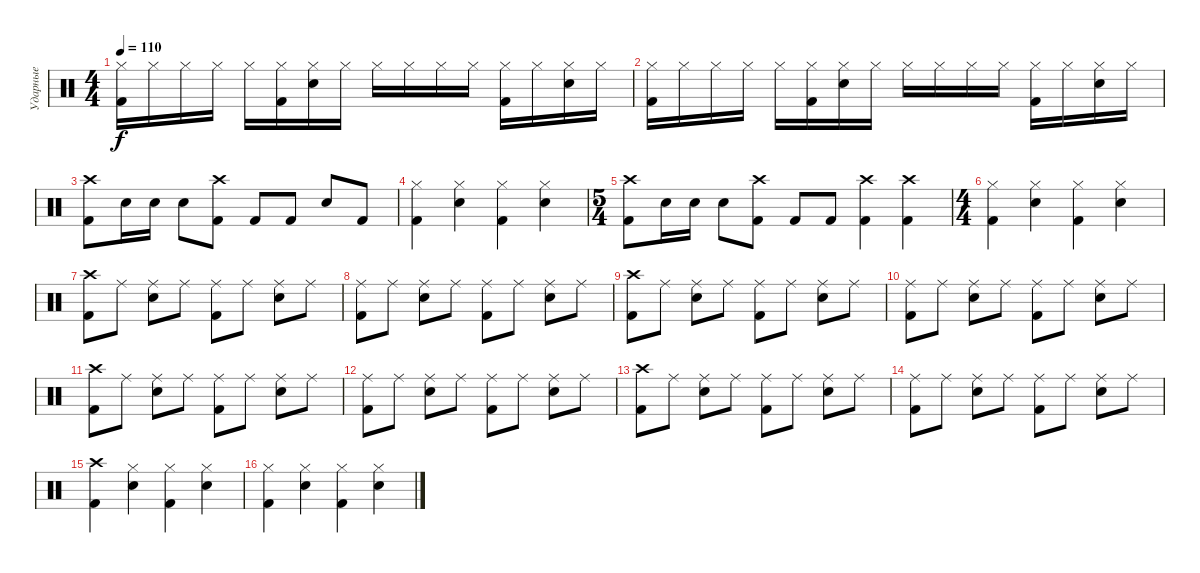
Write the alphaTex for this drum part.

\track ("Ударные" "Ударные") {instrument percussion}
\staff {score}
\articulation defaults
\ts (4 4)
\tempo 110
\clef neutral
\ks c
("Hi-Hat (closed)" "Kick (hit) 2").16{dy f} "Hi-Hat (closed)".16 "Hi-Hat (closed)".16 "Hi-Hat (closed)".16 "Hi-Hat (closed)".16 ("Kick (hit) 2" "Hi-Hat (closed)").16 ("Hi-Hat (closed)" "Electric Snare (hit)").16 "Hi-Hat (closed)".16 "Hi-Hat (closed)".16 "Hi-Hat (closed)".16 "Hi-Hat (closed)".16 "Hi-Hat (closed)".16 ("Kick (hit) 2" "Hi-Hat (closed)").16 "Hi-Hat (closed)".16 ("Hi-Hat (closed)" "Electric Snare (hit)").16 "Hi-Hat (closed)".16 |
("Hi-Hat (closed)" "Kick (hit) 2").16 "Hi-Hat (closed)".16 "Hi-Hat (closed)".16 "Hi-Hat (closed)".16 "Hi-Hat (closed)".16 ("Kick (hit) 2" "Hi-Hat (closed)").16 ("Hi-Hat (closed)" "Electric Snare (hit)").16 "Hi-Hat (closed)".16 "Hi-Hat (closed)".16 "Hi-Hat (closed)".16 "Hi-Hat (closed)".16 "Hi-Hat (closed)".16 ("Kick (hit) 2" "Hi-Hat (closed)").16 "Hi-Hat (closed)".16 ("Hi-Hat (closed)" "Electric Snare (hit)").16 "Hi-Hat (closed)".16 |
("Crash high (hit)" "Kick (hit) 2").8 "Electric Snare (hit)".16 "Electric Snare (hit)".16 "Electric Snare (hit)".8 ("Crash high (hit)" "Kick (hit) 2").8 "Kick (hit) 2".8 "Kick (hit) 2".8 "Electric Snare (hit)".8 "Kick (hit) 2".8 |
("Kick (hit) 2" "Hi-Hat (closed)").4 ("Electric Snare (hit)" "Hi-Hat (closed)").4 ("Kick (hit) 2" "Hi-Hat (closed)").4 ("Electric Snare (hit)" "Hi-Hat (closed)").4 |
\ts (5 4)
("Crash high (hit)" "Kick (hit) 2").8 "Electric Snare (hit)".16 "Electric Snare (hit)".16 "Electric Snare (hit)".8 ("Crash high (hit)" "Kick (hit) 2").8 "Kick (hit) 2".8 "Kick (hit) 2".8 ("Kick (hit) 2" "Crash high (hit)").4 ("Crash high (hit)" "Kick (hit) 2").4 |
\ts (4 4)
("Kick (hit) 2" "Hi-Hat (closed)").4 ("Electric Snare (hit)" "Hi-Hat (closed)").4 ("Kick (hit) 2" "Hi-Hat (closed)").4 ("Electric Snare (hit)" "Hi-Hat (closed)").4 |
("Crash high (hit)" "Kick (hit) 2").8 "Ride (middle)".8 ("Electric Snare (hit)" "Ride (middle)").8 "Ride (middle)".8 ("Kick (hit) 2" "Ride (middle)").8 "Ride (middle)".8 ("Electric Snare (hit)" "Ride (middle)").8 "Ride (middle)".8 |
("Kick (hit) 2" "Ride (middle)").8 "Ride (middle)".8 ("Electric Snare (hit)" "Ride (middle)").8 "Ride (middle)".8 ("Kick (hit) 2" "Ride (middle)").8 "Ride (middle)".8 ("Electric Snare (hit)" "Ride (middle)").8 "Ride (middle)".8 |
("Crash high (hit)" "Kick (hit) 2").8 "Ride (middle)".8 ("Electric Snare (hit)" "Ride (middle)").8 "Ride (middle)".8 ("Kick (hit) 2" "Ride (middle)").8 "Ride (middle)".8 ("Electric Snare (hit)" "Ride (middle)").8 "Ride (middle)".8 |
("Kick (hit) 2" "Ride (middle)").8 "Ride (middle)".8 ("Electric Snare (hit)" "Ride (middle)").8 "Ride (middle)".8 ("Kick (hit) 2" "Ride (middle)").8 "Ride (middle)".8 ("Electric Snare (hit)" "Ride (middle)").8 "Ride (middle)".8 |
("Crash high (hit)" "Kick (hit) 2").8 "Ride (middle)".8 ("Electric Snare (hit)" "Ride (middle)").8 "Ride (middle)".8 ("Kick (hit) 2" "Ride (middle)").8 "Ride (middle)".8 ("Electric Snare (hit)" "Ride (middle)").8 "Ride (middle)".8 |
("Kick (hit) 2" "Ride (middle)").8 "Ride (middle)".8 ("Electric Snare (hit)" "Ride (middle)").8 "Ride (middle)".8 ("Kick (hit) 2" "Ride (middle)").8 "Ride (middle)".8 ("Electric Snare (hit)" "Ride (middle)").8 "Ride (middle)".8 |
("Crash high (hit)" "Kick (hit) 2").8 "Ride (middle)".8 ("Electric Snare (hit)" "Ride (middle)").8 "Ride (middle)".8 ("Kick (hit) 2" "Ride (middle)").8 "Ride (middle)".8 ("Electric Snare (hit)" "Ride (middle)").8 "Ride (middle)".8 |
("Kick (hit) 2" "Ride (middle)").8 "Ride (middle)".8 ("Electric Snare (hit)" "Ride (middle)").8 "Ride (middle)".8 ("Kick (hit) 2" "Ride (middle)").8 "Ride (middle)".8 ("Electric Snare (hit)" "Ride (middle)").8 "Ride (middle)".8 |
("Crash high (hit)" "Kick (hit) 2").4 ("Electric Snare (hit)" "Hi-Hat (closed)").4 ("Kick (hit) 2" "Hi-Hat (closed)").4 ("Electric Snare (hit)" "Hi-Hat (closed)").4 |
("Kick (hit) 2" "Hi-Hat (closed)").4 ("Electric Snare (hit)" "Hi-Hat (closed)").4 ("Kick (hit) 2" "Hi-Hat (closed)").4 ("Electric Snare (hit)" "Hi-Hat (closed)").4
